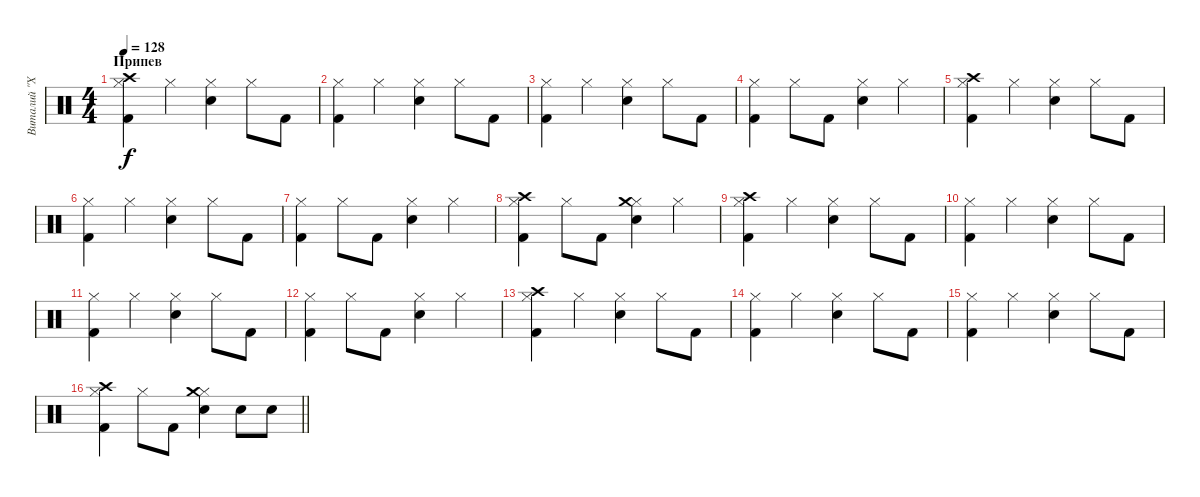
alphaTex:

\track ("Виталий \"Хамер\" Лядов" "Виталий \"Х") {instrument percussion}
\staff {score}
\articulation defaults
\ts (4 4)
\section ("" "Припев")
\tempo 128
\clef neutral
\ks c
("Kick (hit) 2" "Hi-Hat (closed)" "Crash high (hit)").4{dy f} "Hi-Hat (closed)".4 ("Electric Snare (hit)" "Hi-Hat (closed)").4 "Hi-Hat (closed)".8 "Kick (hit) 2".8 |
("Kick (hit) 2" "Hi-Hat (closed)").4 "Hi-Hat (closed)".4 ("Electric Snare (hit)" "Hi-Hat (closed)").4 "Hi-Hat (closed)".8 "Kick (hit) 2".8 |
("Kick (hit) 2" "Hi-Hat (closed)").4 "Hi-Hat (closed)".4 ("Electric Snare (hit)" "Hi-Hat (closed)").4 "Hi-Hat (closed)".8 "Kick (hit) 2".8 |
("Kick (hit) 2" "Hi-Hat (closed)").4 "Hi-Hat (closed)".8 "Kick (hit) 2".8 ("Electric Snare (hit)" "Hi-Hat (closed)").4 "Hi-Hat (closed)".4 |
("Kick (hit) 2" "Hi-Hat (closed)" "Crash high (hit)").4 "Hi-Hat (closed)".4 ("Electric Snare (hit)" "Hi-Hat (closed)").4 "Hi-Hat (closed)".8 "Kick (hit) 2".8 |
("Kick (hit) 2" "Hi-Hat (closed)").4 "Hi-Hat (closed)".4 ("Electric Snare (hit)" "Hi-Hat (closed)").4 "Hi-Hat (closed)".8 "Kick (hit) 2".8 |
("Kick (hit) 2" "Hi-Hat (closed)").4 "Hi-Hat (closed)".8 "Kick (hit) 2".8 ("Electric Snare (hit)" "Hi-Hat (closed)").4 "Hi-Hat (closed)".4 |
("Kick (hit) 2" "Hi-Hat (closed)" "Crash high (hit)").4 "Hi-Hat (closed)".8 "Kick (hit) 2".8 ("Electric Snare (hit)" "Hi-Hat (closed)" "Crash medium (hit)").4 "Hi-Hat (closed)".4 |
("Kick (hit) 2" "Hi-Hat (closed)" "Crash high (hit)").4 "Hi-Hat (closed)".4 ("Electric Snare (hit)" "Hi-Hat (closed)").4 "Hi-Hat (closed)".8 "Kick (hit) 2".8 |
("Kick (hit) 2" "Hi-Hat (closed)").4 "Hi-Hat (closed)".4 ("Electric Snare (hit)" "Hi-Hat (closed)").4 "Hi-Hat (closed)".8 "Kick (hit) 2".8 |
("Kick (hit) 2" "Hi-Hat (closed)").4 "Hi-Hat (closed)".4 ("Electric Snare (hit)" "Hi-Hat (closed)").4 "Hi-Hat (closed)".8 "Kick (hit) 2".8 |
("Kick (hit) 2" "Hi-Hat (closed)").4 "Hi-Hat (closed)".8 "Kick (hit) 2".8 ("Electric Snare (hit)" "Hi-Hat (closed)").4 "Hi-Hat (closed)".4 |
("Kick (hit) 2" "Hi-Hat (closed)" "Crash high (hit)").4 "Hi-Hat (closed)".4 ("Electric Snare (hit)" "Hi-Hat (closed)").4 "Hi-Hat (closed)".8 "Kick (hit) 2".8 |
("Kick (hit) 2" "Hi-Hat (closed)").4 "Hi-Hat (closed)".4 ("Electric Snare (hit)" "Hi-Hat (closed)").4 "Hi-Hat (closed)".8 "Kick (hit) 2".8 |
("Kick (hit) 2" "Hi-Hat (closed)").4 "Hi-Hat (closed)".4 ("Electric Snare (hit)" "Hi-Hat (closed)").4 "Hi-Hat (closed)".8 "Kick (hit) 2".8 |
\barLineRight lightlight
("Kick (hit) 2" "Hi-Hat (closed)" "Crash high (hit)").4 "Hi-Hat (closed)".8 "Kick (hit) 2".8 ("Electric Snare (hit)" "Hi-Hat (closed)" "Crash medium (hit)").4 "Electric Snare (hit)".8 "Electric Snare (hit)".8
